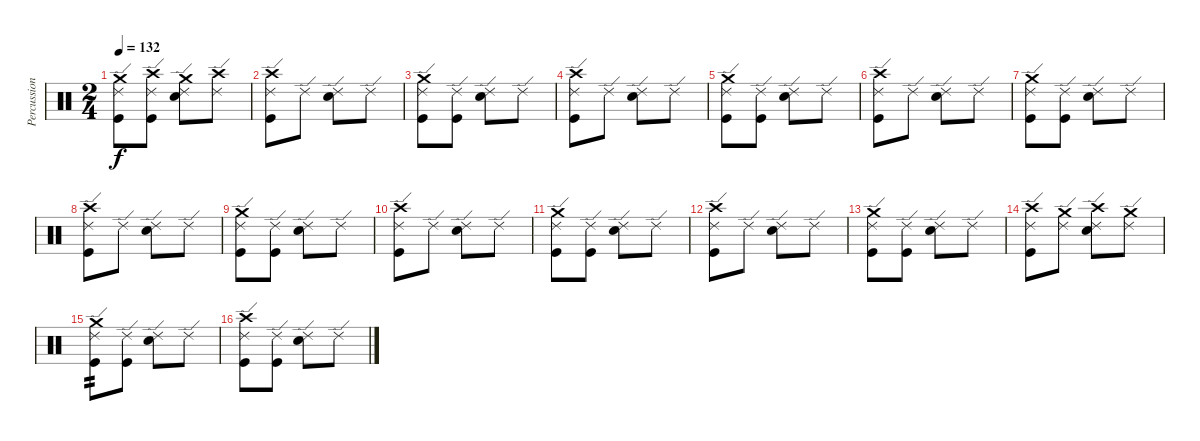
\track ("Percussion" "Percussion") {instrument percussion}
\staff {score}
\articulation defaults
\ts (2 4)
\tempo 132
\clef neutral
\ks c
("Crash medium (hit)" "Ride (edge) 2" "Kick (hit)").8{dy f} ("Crash high (hit)" "Ride (edge) 2" "Kick (hit)").8 ("Crash medium (hit)" "Ride (edge) 2" "Electric Snare (hit)").8 ("Crash high (hit)" "Ride (edge) 2").8 |
("Crash high (hit)" "Ride (edge) 2" "Kick (hit)").8 "Ride (edge) 2".8 ("Ride (edge) 2" "Electric Snare (hit)").8 "Ride (edge) 2".8 |
("Crash medium (hit)" "Ride (edge) 2" "Kick (hit)").8 ("Ride (edge) 2" "Kick (hit)").8 ("Ride (edge) 2" "Electric Snare (hit)").8 "Ride (edge) 2".8 |
("Crash high (hit)" "Ride (edge) 2" "Kick (hit)").8 "Ride (edge) 2".8 ("Ride (edge) 2" "Electric Snare (hit)").8 "Ride (edge) 2".8 |
("Crash medium (hit)" "Ride (edge) 2" "Kick (hit)").8 ("Ride (edge) 2" "Kick (hit)").8 ("Ride (edge) 2" "Electric Snare (hit)").8 "Ride (edge) 2".8 |
("Crash high (hit)" "Ride (edge) 2" "Kick (hit)").8 "Ride (edge) 2".8 ("Ride (edge) 2" "Electric Snare (hit)").8 "Ride (edge) 2".8 |
("Crash medium (hit)" "Ride (edge) 2" "Kick (hit)").8 ("Ride (edge) 2" "Kick (hit)").8 ("Ride (edge) 2" "Electric Snare (hit)").8 "Ride (edge) 2".8 |
("Crash high (hit)" "Ride (edge) 2" "Kick (hit)").8 "Ride (edge) 2".8 ("Ride (edge) 2" "Electric Snare (hit)").8 "Ride (edge) 2".8 |
("Crash medium (hit)" "Ride (edge) 2" "Kick (hit)").8 ("Ride (edge) 2" "Kick (hit)").8 ("Ride (edge) 2" "Electric Snare (hit)").8 "Ride (edge) 2".8 |
("Crash high (hit)" "Ride (edge) 2" "Kick (hit)").8 "Ride (edge) 2".8 ("Ride (edge) 2" "Electric Snare (hit)").8 "Ride (edge) 2".8 |
("Crash medium (hit)" "Ride (edge) 2" "Kick (hit)").8 ("Ride (edge) 2" "Kick (hit)").8 ("Ride (edge) 2" "Electric Snare (hit)").8 "Ride (edge) 2".8 |
("Crash high (hit)" "Ride (edge) 2" "Kick (hit)").8 "Ride (edge) 2".8 ("Ride (edge) 2" "Electric Snare (hit)").8 "Ride (edge) 2".8 |
("Crash medium (hit)" "Ride (edge) 2" "Kick (hit)").8 ("Ride (edge) 2" "Kick (hit)").8 ("Ride (edge) 2" "Electric Snare (hit)").8 "Ride (edge) 2".8 |
("Crash high (hit)" "Ride (edge) 2" "Kick (hit)").8 ("Crash medium (hit)" "Ride (edge) 2").8 ("Crash high (hit)" "Ride (edge) 2" "Electric Snare (hit)").8 ("Crash medium (hit)" "Ride (edge) 2").8 |
("Crash medium (hit)" "Ride (edge) 2" "Kick (hit)").8{tp 2} ("Ride (edge) 2" "Kick (hit)").8 ("Ride (edge) 2" "Electric Snare (hit)").8 "Ride (edge) 2".8 |
("Crash high (hit)" "Ride (edge) 2" "Kick (hit)").8 ("Ride (edge) 2" "Kick (hit)").8 ("Ride (edge) 2" "Electric Snare (hit)").8 "Ride (edge) 2".8
